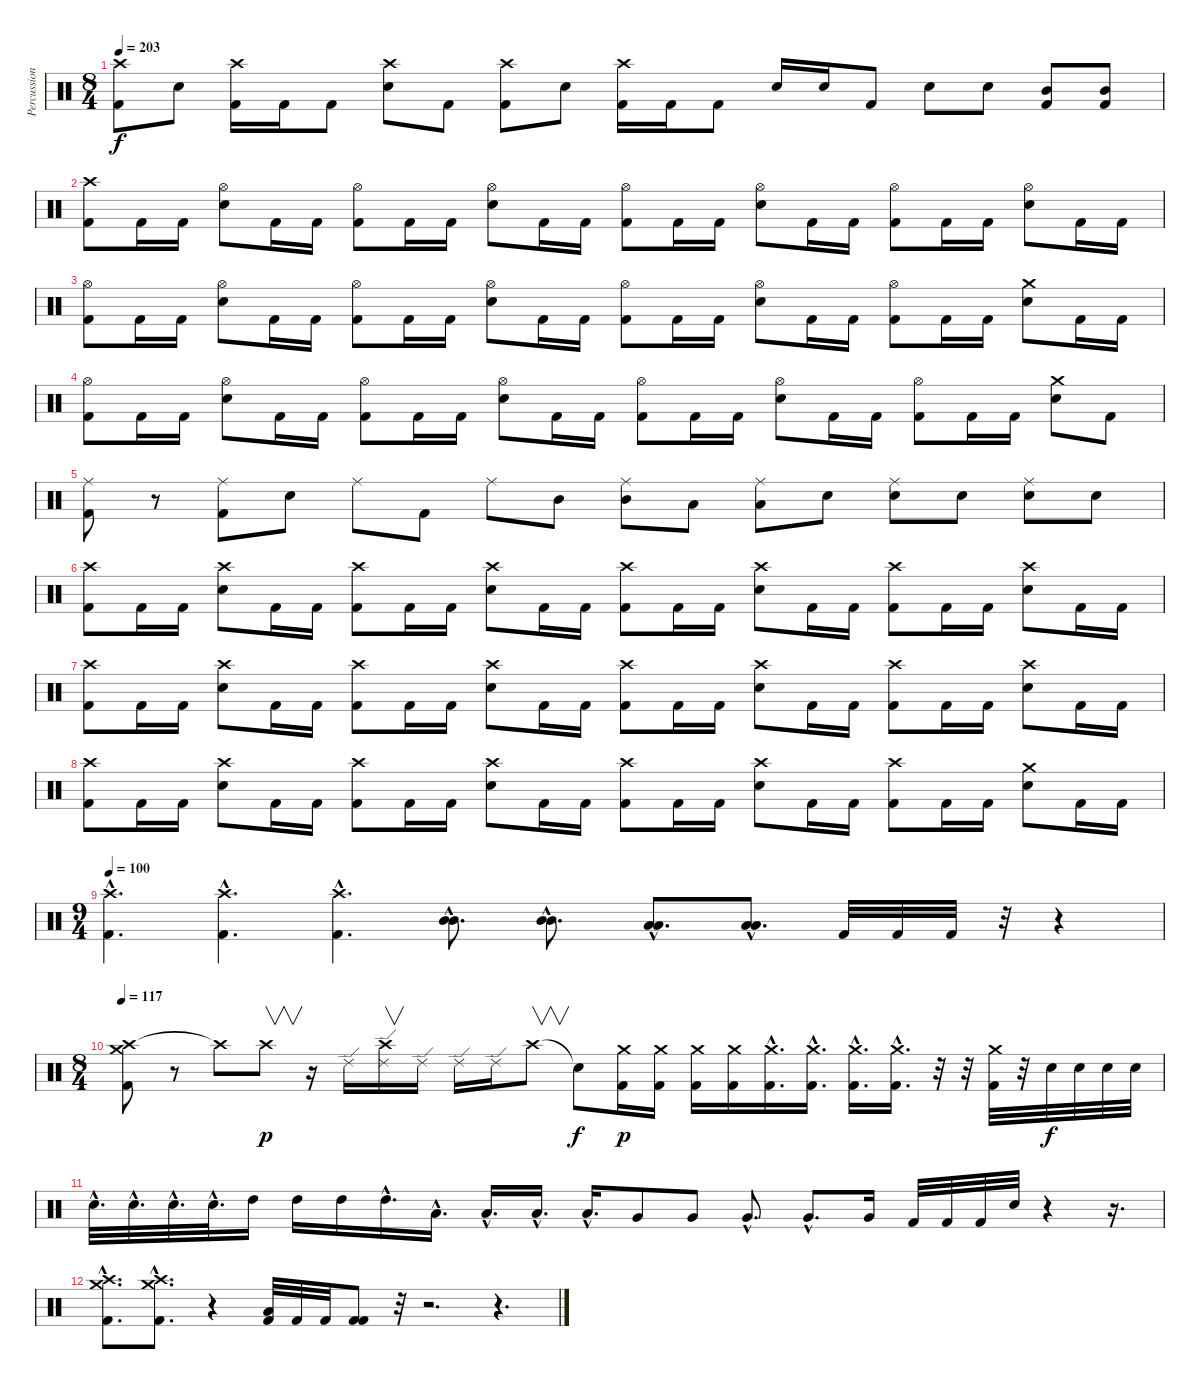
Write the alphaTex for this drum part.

\track ("Percussion" "Percussion") {instrument percussion}
\staff {score}
\articulation defaults
\ts (8 4)
\tempo 203
\clef neutral
\ks c
("Crash high (hit)" "Kick (hit) 2").8{dy f} "Snare (hit) 2".8 ("Crash high (hit)" "Kick (hit) 2").16 "Kick (hit) 2".16 "Kick (hit) 2".8 ("Crash high (hit)" "Snare (hit) 2").8 "Kick (hit) 2".8 ("Crash high (hit)" "Kick (hit) 2").8 "Snare (hit) 2".8 ("Crash high (hit)" "Kick (hit) 2").16 "Kick (hit) 2".16 "Kick (hit) 2".8 "Snare (hit) 2".16 "Snare (hit) 2".16 "Kick (hit) 2".8 "Snare (hit) 2".8 "Snare (hit) 2".8 ("Mid Tom (hit)" "Kick (hit) 2").8 ("Mid Tom (hit)" "Kick (hit) 2").8 |
("Crash high (hit)" "Kick (hit) 2").8 "Kick (hit) 2".16 "Kick (hit) 2".16 ("Hi-Hat (open)" "Snare (hit) 2").8 "Kick (hit) 2".16 "Kick (hit) 2".16 ("Hi-Hat (open)" "Kick (hit) 2").8 "Kick (hit) 2".16 "Kick (hit) 2".16 ("Hi-Hat (open)" "Snare (hit) 2").8 "Kick (hit) 2".16 "Kick (hit) 2".16 ("Hi-Hat (open)" "Kick (hit) 2").8 "Kick (hit) 2".16 "Kick (hit) 2".16 ("Hi-Hat (open)" "Snare (hit) 2").8 "Kick (hit) 2".16 "Kick (hit) 2".16 ("Hi-Hat (open)" "Kick (hit) 2").8 "Kick (hit) 2".16 "Kick (hit) 2".16 ("Hi-Hat (open)" "Snare (hit) 2").8 "Kick (hit) 2".16 "Kick (hit) 2".16 |
("Hi-Hat (open)" "Kick (hit) 2").8 "Kick (hit) 2".16 "Kick (hit) 2".16 ("Hi-Hat (open)" "Snare (hit) 2").8 "Kick (hit) 2".16 "Kick (hit) 2".16 ("Hi-Hat (open)" "Kick (hit) 2").8 "Kick (hit) 2".16 "Kick (hit) 2".16 ("Hi-Hat (open)" "Snare (hit) 2").8 "Kick (hit) 2".16 "Kick (hit) 2".16 ("Hi-Hat (open)" "Kick (hit) 2").8 "Kick (hit) 2".16 "Kick (hit) 2".16 ("Hi-Hat (open)" "Snare (hit) 2").8 "Kick (hit) 2".16 "Kick (hit) 2".16 ("Hi-Hat (open)" "Kick (hit) 2").8 "Kick (hit) 2".16 "Kick (hit) 2".16 ("Crash medium (hit)" "Snare (hit) 2").8 "Kick (hit) 2".16 "Kick (hit) 2".16 |
("Hi-Hat (open)" "Kick (hit) 2").8 "Kick (hit) 2".16 "Kick (hit) 2".16 ("Hi-Hat (open)" "Snare (hit) 2").8 "Kick (hit) 2".16 "Kick (hit) 2".16 ("Hi-Hat (open)" "Kick (hit) 2").8 "Kick (hit) 2".16 "Kick (hit) 2".16 ("Hi-Hat (open)" "Snare (hit) 2").8 "Kick (hit) 2".16 "Kick (hit) 2".16 ("Hi-Hat (open)" "Kick (hit) 2").8 "Kick (hit) 2".16 "Kick (hit) 2".16 ("Hi-Hat (open)" "Snare (hit) 2").8 "Kick (hit) 2".16 "Kick (hit) 2".16 ("Hi-Hat (open)" "Kick (hit) 2").8 "Kick (hit) 2".16 "Kick (hit) 2".16 ("Crash medium (hit)" "Snare (hit) 2").8 "Kick (hit) 2".8 |
("Ride (middle)" "Kick (hit) 2").8 r.8 ("Ride (middle)" "Kick (hit) 2").8 "Snare (hit) 2".8 "Ride (middle)".8 "Kick (hit) 2".8 "Ride (middle)".8 "Mid Tom (hit)".8 ("Ride (middle)" "Mid Tom (hit)").8 "Low Tom (hit)".8 ("Ride (middle)" "Low Tom (hit)").8 "Snare (hit) 2".8 ("Ride (middle)" "Snare (hit) 2").8 "Snare (hit) 2".8 ("Ride (middle)" "Snare (hit) 2").8 "Snare (hit) 2".8 |
("Crash high (hit)" "Kick (hit) 2").8 "Kick (hit) 2".16 "Kick (hit) 2".16 ("Crash high (hit)" "Snare (hit) 2").8 "Kick (hit) 2".16 "Kick (hit) 2".16 ("Crash high (hit)" "Kick (hit) 2").8 "Kick (hit) 2".16 "Kick (hit) 2".16 ("Crash high (hit)" "Snare (hit) 2").8 "Kick (hit) 2".16 "Kick (hit) 2".16 ("Crash high (hit)" "Kick (hit) 2").8 "Kick (hit) 2".16 "Kick (hit) 2".16 ("Crash high (hit)" "Snare (hit) 2").8 "Kick (hit) 2".16 "Kick (hit) 2".16 ("Crash high (hit)" "Kick (hit) 2").8 "Kick (hit) 2".16 "Kick (hit) 2".16 ("Crash high (hit)" "Snare (hit) 2").8 "Kick (hit) 2".16 "Kick (hit) 2".16 |
("Crash high (hit)" "Kick (hit) 2").8 "Kick (hit) 2".16 "Kick (hit) 2".16 ("Crash high (hit)" "Snare (hit) 2").8 "Kick (hit) 2".16 "Kick (hit) 2".16 ("Crash high (hit)" "Kick (hit) 2").8 "Kick (hit) 2".16 "Kick (hit) 2".16 ("Crash high (hit)" "Snare (hit) 2").8 "Kick (hit) 2".16 "Kick (hit) 2".16 ("Crash high (hit)" "Kick (hit) 2").8 "Kick (hit) 2".16 "Kick (hit) 2".16 ("Crash high (hit)" "Snare (hit) 2").8 "Kick (hit) 2".16 "Kick (hit) 2".16 ("Crash high (hit)" "Kick (hit) 2").8 "Kick (hit) 2".16 "Kick (hit) 2".16 ("Crash high (hit)" "Snare (hit) 2").8 "Kick (hit) 2".16 "Kick (hit) 2".16 |
("Crash high (hit)" "Kick (hit) 2").8 "Kick (hit) 2".16 "Kick (hit) 2".16 ("Crash high (hit)" "Snare (hit) 2").8 "Kick (hit) 2".16 "Kick (hit) 2".16 ("Crash high (hit)" "Kick (hit) 2").8 "Kick (hit) 2".16 "Kick (hit) 2".16 ("Crash high (hit)" "Snare (hit) 2").8 "Kick (hit) 2".16 "Kick (hit) 2".16 ("Crash high (hit)" "Kick (hit) 2").8 "Kick (hit) 2".16 "Kick (hit) 2".16 ("Crash high (hit)" "Snare (hit) 2").8 "Kick (hit) 2".16 "Kick (hit) 2".16 ("Crash high (hit)" "Kick (hit) 2").8 "Kick (hit) 2".16 "Kick (hit) 2".16 ("Crash medium (hit)" "Snare (hit) 2").8 "Kick (hit) 2".16 "Kick (hit) 2".16 |
\ts (9 4)
\tempo 100
("Crash high (hit)"{hac} "Kick (hit) 2"{hac}).4{d} ("Crash high (hit)"{hac} "Kick (hit) 2"{hac}).4{d} ("Crash high (hit)"{hac} "Kick (hit) 2"{hac}).4{d} ("Mid Tom (hit)"{hac} "Mid Tom (hit)"{hac}).8{d} ("Mid Tom (hit)"{hac} "Mid Tom (hit)"{hac}).8{d} ("Low Tom (hit)"{hac} "Low Tom (hit)"{hac}).8{d} ("Low Tom (hit)"{hac} "Low Tom (hit)"{hac}).8{d} "Kick (hit) 2".32 "Kick (hit) 2".32 "Kick (hit) 2".32 r.32 r.4 |
\ts (8 4)
\tempo 117
("Crash high (hit)" "Crash medium (hit)" "Kick (hit) 2").8 r.8 "Crash high (hit)"{t}.8 "Crash high (hit)".8{v dy p} r.16 "Ride (edge) 2".16 ("Crash high (hit)" "Ride (edge) 2").16{v} "Ride (edge) 2".16 "Ride (edge) 2".16 "Ride (edge) 2".16 "Crash high (hit)".8{v} "Snare (hit)"{t}.8{dy f} ("Crash medium (hit)" "Kick (hit) 2").16{dy p} ("Crash medium (hit)" "Kick (hit) 2").16 ("Crash medium (hit)" "Kick (hit) 2").16 ("Crash medium (hit)" "Kick (hit) 2").16 ("Crash medium (hit)"{hac} "Kick (hit) 2"{hac}).16{d} ("Crash medium (hit)"{hac} "Kick (hit) 2"{hac}).16{d} ("Crash medium (hit)"{hac} "Kick (hit) 2"{hac}).16{d} ("Crash medium (hit)"{hac} "Kick (hit) 2"{hac}).16{d} r.32 r.32 ("Crash medium (hit)" "Kick (hit) 2").32 r.32 "Electric Snare (hit)".32{dy f} "Electric Snare (hit)".32 "Electric Snare (hit)".32 "Electric Snare (hit)".32 |
"Electric Snare (hit)"{hac}.32{d} "Electric Snare (hit)"{hac}.32{d} "Electric Snare (hit)"{hac}.32{d} "Electric Snare (hit)"{hac}.32{d} "High Tom (hit)".16 "High Tom (hit)".16 "High Tom (hit)".16 "High Tom (hit)"{hac}.16{d} "Low Tom (hit)"{hac}.16{d} "Low Tom (hit)"{hac}.16{d} "Low Tom (hit)"{hac}.16{d} "Low Tom (hit)"{hac}.16{d} "Very Low Tom (hit)".8 "Very Low Tom (hit)".8 "Very Low Tom (hit)"{hac}.8{d} "Very Low Tom (hit)"{hac}.8{d} "Very Low Tom (hit)".16 "Kick (hit) 2".32 "Kick (hit) 2".32 "Kick (hit) 2".32 "Electric Snare (hit)".32 r.4 r.16{d} |
("Crash high (hit)"{hac} "Crash medium (hit)"{hac} "Kick (hit) 2"{hac}).8{d} ("Crash high (hit)"{hac} "Crash medium (hit)"{hac} "Kick (hit) 2"{hac}).8{d} r.4 ("Low Tom (hit)" "Kick (hit) 2").32 "Kick (hit) 2".32 "Kick (hit) 2".32 ("Kick (hit) 2" "Kick (hit) 2").8 r.32 r.2{d} r.4{d}
